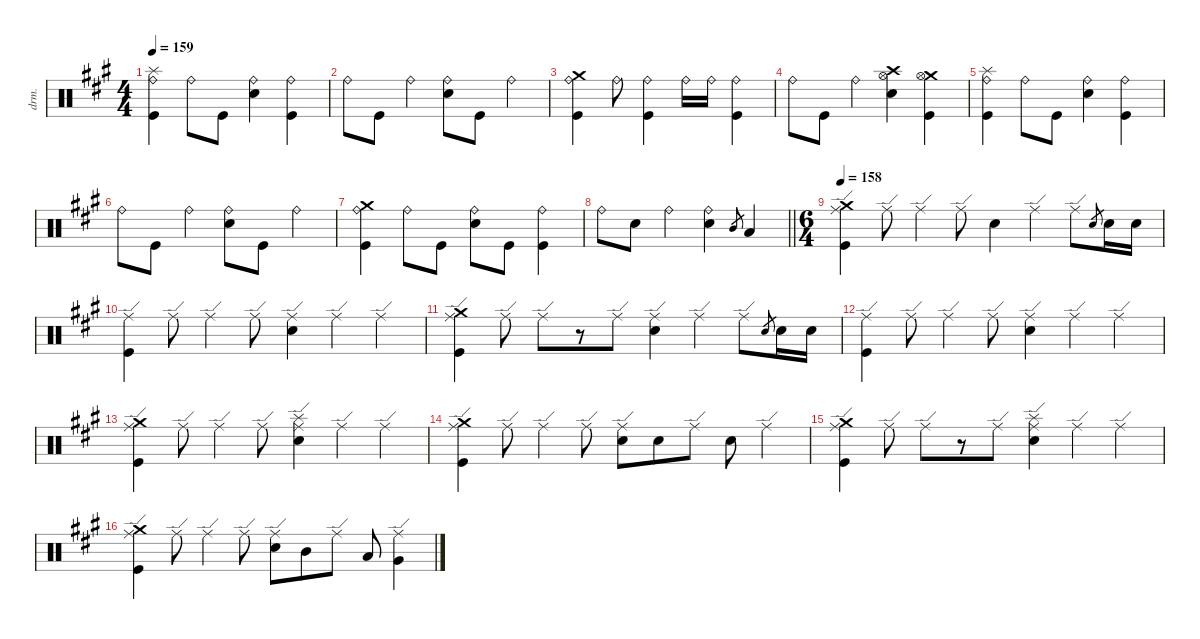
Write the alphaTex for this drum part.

\defaultSystemsLayout 4
\hideDynamics
\bracketExtendMode groupsimilarinstruments
\otherSystemsTrackNameOrientation horizontal
\track ("Drums" "drm.") {defaultSystemsLayout 4 instrument percussion}
\staff {score}
\articulation defaults
\ts (4 4)
\tempo 159
\clef neutral
\ks f#minor
("Splash (hit)"{acc forcenatural} "Ride (bell)"{acc forcenatural} "Kick (hit)"{acc forcenatural}).4{dy f beam Down} "Ride (bell)"{acc forcenatural}.8{beam Down} "Kick (hit)"{acc forcenatural}.8{dy mp beam Down} ("Ride (bell)"{acc forcenatural} "Snare (hit) 2"{acc forcenatural}).4{dy f beam Down} ("Ride (bell)"{acc forcenatural} "Kick (hit)"{acc forcenatural}).4{beam Down} |
"Ride (bell)"{acc forcenatural}.8{beam Down} "Kick (hit)"{acc forcenatural}.8{beam Down} "Ride (bell)"{acc forcenatural}.4{beam Down} ("Ride (bell)"{acc forcenatural} "Snare (hit) 2"{acc forcenatural}).8{beam Down} "Kick (hit)"{acc forcenatural}.8{beam Down} "Ride (bell)"{acc forcenatural}.4{beam Down} |
("Crash medium (hit)"{acc forcenatural} "Ride (bell)"{acc forcenatural} "Kick (hit)"{acc forcenatural}).4{beam Down} "Ride (bell)"{acc forcenatural}.8{beam Down} ("Ride (bell)"{acc forcenatural} "Kick (hit)"{acc forcenatural}).4{beam Down} "Ride (bell)"{acc forcenatural}.16{dy mf beam Down} "Ride (bell)"{acc forcenatural}.16{beam Down} ("Ride (bell)"{acc forcenatural} "Kick (hit)"{acc forcenatural}).4{dy f beam Down} |
"Ride (bell)"{acc forcenatural}.8{beam Down} "Kick (hit)"{acc forcenatural}.8{beam Down} "Ride (bell)"{acc forcenatural}.4{beam Down} ("Crash high (hit)"{acc forcenatural} "Hi-Hat (open)"{acc forcenatural} "Snare (hit) 2"{acc forcenatural}).4{dy mf beam Down} ("Crash medium (hit)"{acc forcenatural} "Hi-Hat (open)"{acc forcenatural} "Kick (hit)"{acc forcenatural}).4{dy f beam Down} |
("Splash (hit)"{acc forcenatural} "Ride (bell)"{acc forcenatural} "Kick (hit)"{acc forcenatural}).4{beam Down} "Ride (bell)"{acc forcenatural}.8{beam Down} "Kick (hit)"{acc forcenatural}.8{dy mp beam Down} ("Ride (bell)"{acc forcenatural} "Snare (hit) 2"{acc forcenatural}).4{dy f beam Down} ("Ride (bell)"{acc forcenatural} "Kick (hit)"{acc forcenatural}).4{beam Down} |
"Ride (bell)"{acc forcenatural}.8{beam Down} "Kick (hit)"{acc forcenatural}.8{beam Down} "Ride (bell)"{acc forcenatural}.4{beam Down} ("Ride (bell)"{acc forcenatural} "Snare (hit) 2"{acc forcenatural}).8{beam Down} "Kick (hit)"{acc forcenatural}.8{beam Down} "Ride (bell)"{acc forcenatural}.4{beam Down} |
("Crash medium (hit)"{acc forcenatural} "Ride (bell)"{acc forcenatural} "Kick (hit)"{acc forcenatural}).4{beam Down} "Ride (bell)"{acc forcenatural}.8{beam Down} "Kick (hit)"{acc forcenatural}.8{dy mp beam Down} ("Ride (bell)"{acc forcenatural} "Snare (hit) 2"{acc forcenatural}).8{dy f beam Down} "Kick (hit)"{acc forcenatural}.8{dy mf beam Down} ("Ride (bell)"{acc forcenatural} "Kick (hit)"{acc forcenatural}).4{dy f beam Down} |
\barLineRight lightlight "Ride (bell)"{acc forcenatural}.8{beam Down} "Snare (hit) 2"{acc forcenatural}.8{beam Down} "Ride (bell)"{acc forcenatural}.4{beam Down}
("Ride (bell)"{acc forcenatural} "Snare (hit) 2"{acc forcenatural}).4{beam Down} "Mid Tom (hit)"{acc forcenatural}.8{gr dy p beam Up} "Low Tom (hit)"{acc forcenatural}.4{dy f beam Up} |
\ts (6 4)
\beaming (8 3 3 3 3)
\tempo 158
("Crash medium (hit)"{acc forcenatural} "Kick (hit)"{acc forcenatural} "Ride (edge)"{acc forcenatural}).4{beam Down} "Ride (edge)"{acc forcenatural}.8{dy p beam Down} "Ride (edge)"{acc forcenatural}.4{beam Down} "Ride (edge)"{acc forcenatural}.8{beam Down} "Snare (hit) 2"{acc forcenatural}.4{dy f beam Down} "Ride (edge)"{acc forcenatural}.4{dy mp beam Down} "Ride (edge)"{acc forcenatural}.8{beam Down} "Electric Snare (hit)"{acc forcenatural}.8{gr dy ppp beam Up} "Snare (hit) 2"{acc forcenatural}.16{dy p beam Down} "Snare (hit) 2"{acc forcenatural}.16{beam Down} |
("Ride (edge)"{acc forcenatural} "Kick (hit)"{acc forcenatural}).4{dy f beam Down} "Ride (edge)"{acc forcenatural}.8{dy mf beam Down} "Ride (edge)"{acc forcenatural}.4{dy mp beam Down} "Ride (edge)"{acc forcenatural}.8{dy p beam Down} ("Ride (edge)"{acc forcenatural} "Snare (hit) 2"{acc forcenatural}).4{dy f beam Down} "Ride (edge)"{acc forcenatural}.4{dy mf beam Down} "Ride (edge)"{acc forcenatural}.4{dy mp beam Down} |
("Crash medium (hit)"{acc forcenatural} "Ride (edge)"{acc forcenatural} "Kick (hit)"{acc forcenatural}).4{dy f beam Down} "Ride (edge)"{acc forcenatural}.8{dy p beam Down} "Ride (edge)"{acc forcenatural}.8{beam Down} r.8{beam Down} "Ride (edge)"{acc forcenatural}.8{beam Down} ("Ride (edge)"{acc forcenatural} "Snare (hit) 2"{acc forcenatural}).4{dy f beam Down} "Ride (edge)"{acc forcenatural}.4{dy mf beam Down} "Ride (edge)"{acc forcenatural}.8{dy p beam Down} "Electric Snare (hit)"{acc forcenatural}.8{gr dy ppp beam Up} "Snare (hit) 2"{acc forcenatural}.16{dy p beam Down} "Snare (hit) 2"{acc forcenatural}.16{beam Down} |
("Ride (edge)"{acc forcenatural} "Kick (hit)"{acc forcenatural}).4{dy f beam Down} "Ride (edge)"{acc forcenatural}.8{dy mf beam Down} "Ride (edge)"{acc forcenatural}.4{dy mp beam Down} "Ride (edge)"{acc forcenatural}.8{dy p beam Down} ("Ride (edge)"{acc forcenatural} "Snare (hit) 2"{acc forcenatural}).4{dy f beam Down} "Ride (edge)"{acc forcenatural}.4{dy mp beam Down} "Ride (edge)"{acc forcenatural}.4{dy p beam Down} |
("Crash medium (hit)"{acc forcenatural} "Ride (edge)"{acc forcenatural} "Kick (hit)"{acc forcenatural}).4{dy f beam Down} "Ride (edge)"{acc forcenatural}.8{dy p beam Down} "Ride (edge)"{acc forcenatural}.4{beam Down} "Ride (edge)"{acc forcenatural}.8{beam Down} ("Splash (hit)"{acc forcenatural} "Ride (edge)"{acc forcenatural} "Snare (hit) 2"{acc forcenatural}).4{dy mf beam Down} "Ride (edge)"{acc forcenatural}.4{beam Down} "Ride (edge)"{acc forcenatural}.4{dy mp beam Down} |
("Crash medium (hit)"{acc forcenatural} "Ride (edge)"{acc forcenatural} "Kick (hit)"{acc forcenatural}).4{dy f beam Down} "Ride (edge)"{acc forcenatural}.8{dy p beam Down} "Ride (edge)"{acc forcenatural}.4{beam Down} "Ride (edge)"{acc forcenatural}.8{beam Down} ("Ride (edge)"{acc forcenatural} "Snare (hit) 2"{acc forcenatural}).8{dy f beam Down} "Snare (hit) 2"{acc forcenatural}.8{dy mf beam Down} "Ride (edge)"{acc forcenatural}.8{beam Down} "Snare (hit) 2"{acc forcenatural}.8{dy f beam Down} "Ride (edge)"{acc forcenatural}.4{dy mf beam Down} |
("Crash medium (hit)"{acc forcenatural} "Ride (edge)"{acc forcenatural} "Kick (hit)"{acc forcenatural}).4{dy f beam Down} "Ride (edge)"{acc forcenatural}.8{dy p beam Down} "Ride (edge)"{acc forcenatural}.8{beam Down} r.8{beam Down} "Ride (edge)"{acc forcenatural}.8{beam Down} ("Splash (hit)"{acc forcenatural} "Ride (edge)"{acc forcenatural} "Snare (hit) 2"{acc forcenatural}).4{dy mf beam Down} "Ride (edge)"{acc forcenatural}.4{beam Down} "Ride (edge)"{acc forcenatural}.4{dy p beam Down} |
("Crash medium (hit)"{acc forcenatural} "Ride (edge)"{acc forcenatural} "Kick (hit)"{acc forcenatural}).4{dy f beam Down} "Ride (edge)"{acc forcenatural}.8{dy p beam Down} "Ride (edge)"{acc forcenatural}.4{beam Down} "Ride (edge)"{acc forcenatural}.8{beam Down} ("Ride (edge)"{acc forcenatural} "Snare (hit) 2"{acc forcenatural}).8{dy f beam Down} "Mid Tom (hit)"{acc forcenatural}.8{dy mf beam Down} "Ride (edge)"{acc forcenatural}.8{dy p beam Down} "Low Tom (hit)"{acc forcenatural}.8{dy f beam Up} ("Ride (edge)"{acc forcenatural} "Very Low Tom (hit)"{acc forcenatural}).4{beam Down}
